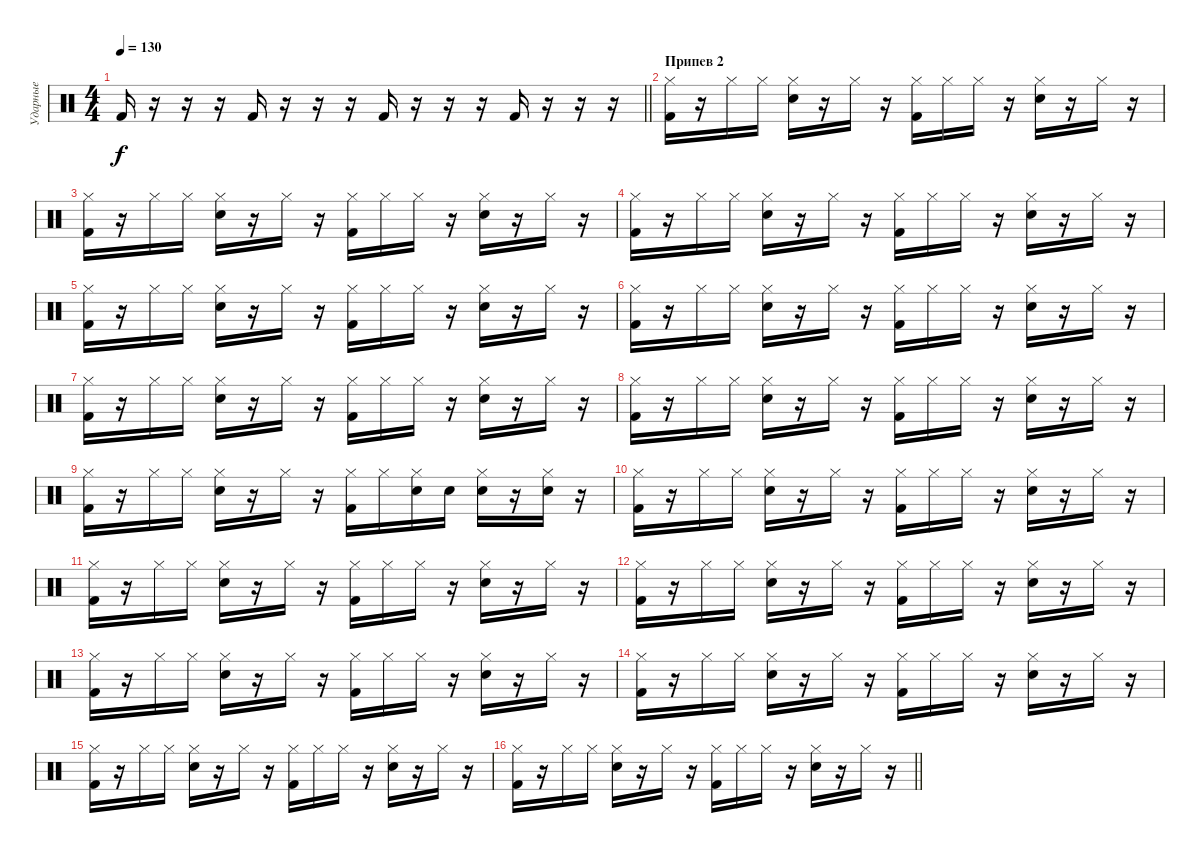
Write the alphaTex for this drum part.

\track ("Ударные" "Ударные") {instrument percussion}
\staff {score}
\articulation defaults
\ts (4 4)
\tempo 130
\clef neutral
\barLineRight lightlight
\ks c "Kick (hit) 2".16{dy f}
r.16 r.16 r.16 "Kick (hit) 2".16 r.16 r.16 r.16 "Kick (hit) 2".16 r.16 r.16 r.16 "Kick (hit) 2".16 r.16 r.16 r.16 |
\section ("" "Припев 2")
("Kick (hit) 2" "Hi-Hat (closed)").16 r.16 "Hi-Hat (closed)".16 "Hi-Hat (closed)".16 ("Snare (hit) 2" "Hi-Hat (closed)").16 r.16 "Hi-Hat (closed)".16 r.16 ("Kick (hit) 2" "Hi-Hat (closed)").16 "Hi-Hat (closed)".16 "Hi-Hat (closed)".16 r.16 ("Snare (hit) 2" "Hi-Hat (closed)").16 r.16 "Hi-Hat (closed)".16 r.16 |
("Kick (hit) 2" "Hi-Hat (closed)").16 r.16 "Hi-Hat (closed)".16 "Hi-Hat (closed)".16 ("Snare (hit) 2" "Hi-Hat (closed)").16 r.16 "Hi-Hat (closed)".16 r.16 ("Kick (hit) 2" "Hi-Hat (closed)").16 "Hi-Hat (closed)".16 "Hi-Hat (closed)".16 r.16 ("Snare (hit) 2" "Hi-Hat (closed)").16 r.16 "Hi-Hat (closed)".16 r.16 |
("Kick (hit) 2" "Hi-Hat (closed)").16 r.16 "Hi-Hat (closed)".16 "Hi-Hat (closed)".16 ("Snare (hit) 2" "Hi-Hat (closed)").16 r.16 "Hi-Hat (closed)".16 r.16 ("Kick (hit) 2" "Hi-Hat (closed)").16 "Hi-Hat (closed)".16 "Hi-Hat (closed)".16 r.16 ("Snare (hit) 2" "Hi-Hat (closed)").16 r.16 "Hi-Hat (closed)".16 r.16 |
("Kick (hit) 2" "Hi-Hat (closed)").16 r.16 "Hi-Hat (closed)".16 "Hi-Hat (closed)".16 ("Snare (hit) 2" "Hi-Hat (closed)").16 r.16 "Hi-Hat (closed)".16 r.16 ("Kick (hit) 2" "Hi-Hat (closed)").16 "Hi-Hat (closed)".16 "Hi-Hat (closed)".16 r.16 ("Snare (hit) 2" "Hi-Hat (closed)").16 r.16 "Hi-Hat (closed)".16 r.16 |
("Kick (hit) 2" "Hi-Hat (closed)").16 r.16 "Hi-Hat (closed)".16 "Hi-Hat (closed)".16 ("Snare (hit) 2" "Hi-Hat (closed)").16 r.16 "Hi-Hat (closed)".16 r.16 ("Kick (hit) 2" "Hi-Hat (closed)").16 "Hi-Hat (closed)".16 "Hi-Hat (closed)".16 r.16 ("Snare (hit) 2" "Hi-Hat (closed)").16 r.16 "Hi-Hat (closed)".16 r.16 |
("Kick (hit) 2" "Hi-Hat (closed)").16 r.16 "Hi-Hat (closed)".16 "Hi-Hat (closed)".16 ("Snare (hit) 2" "Hi-Hat (closed)").16 r.16 "Hi-Hat (closed)".16 r.16 ("Kick (hit) 2" "Hi-Hat (closed)").16 "Hi-Hat (closed)".16 "Hi-Hat (closed)".16 r.16 ("Snare (hit) 2" "Hi-Hat (closed)").16 r.16 "Hi-Hat (closed)".16 r.16 |
("Kick (hit) 2" "Hi-Hat (closed)").16 r.16 "Hi-Hat (closed)".16 "Hi-Hat (closed)".16 ("Snare (hit) 2" "Hi-Hat (closed)").16 r.16 "Hi-Hat (closed)".16 r.16 ("Kick (hit) 2" "Hi-Hat (closed)").16 "Hi-Hat (closed)".16 "Hi-Hat (closed)".16 r.16 ("Snare (hit) 2" "Hi-Hat (closed)").16 r.16 "Hi-Hat (closed)".16 r.16 |
("Kick (hit) 2" "Hi-Hat (closed)").16 r.16 "Hi-Hat (closed)".16 "Hi-Hat (closed)".16 ("Snare (hit) 2" "Hi-Hat (closed)").16 r.16 "Hi-Hat (closed)".16 r.16 ("Kick (hit) 2" "Hi-Hat (closed)").16 "Hi-Hat (closed)".16 ("Snare (hit) 2" "Hi-Hat (closed)").16 "Snare (hit) 2".16 ("Snare (hit) 2" "Hi-Hat (closed)").16 r.16 ("Snare (hit) 2" "Hi-Hat (closed)").16 r.16 |
("Kick (hit) 2" "Hi-Hat (closed)").16 r.16 "Hi-Hat (closed)".16 "Hi-Hat (closed)".16 ("Snare (hit) 2" "Hi-Hat (closed)").16 r.16 "Hi-Hat (closed)".16 r.16 ("Kick (hit) 2" "Hi-Hat (closed)").16 "Hi-Hat (closed)".16 "Hi-Hat (closed)".16 r.16 ("Snare (hit) 2" "Hi-Hat (closed)").16 r.16 "Hi-Hat (closed)".16 r.16 |
("Kick (hit) 2" "Hi-Hat (closed)").16 r.16 "Hi-Hat (closed)".16 "Hi-Hat (closed)".16 ("Snare (hit) 2" "Hi-Hat (closed)").16 r.16 "Hi-Hat (closed)".16 r.16 ("Kick (hit) 2" "Hi-Hat (closed)").16 "Hi-Hat (closed)".16 "Hi-Hat (closed)".16 r.16 ("Snare (hit) 2" "Hi-Hat (closed)").16 r.16 "Hi-Hat (closed)".16 r.16 |
("Kick (hit) 2" "Hi-Hat (closed)").16 r.16 "Hi-Hat (closed)".16 "Hi-Hat (closed)".16 ("Snare (hit) 2" "Hi-Hat (closed)").16 r.16 "Hi-Hat (closed)".16 r.16 ("Kick (hit) 2" "Hi-Hat (closed)").16 "Hi-Hat (closed)".16 "Hi-Hat (closed)".16 r.16 ("Snare (hit) 2" "Hi-Hat (closed)").16 r.16 "Hi-Hat (closed)".16 r.16 |
("Kick (hit) 2" "Hi-Hat (closed)").16 r.16 "Hi-Hat (closed)".16 "Hi-Hat (closed)".16 ("Snare (hit) 2" "Hi-Hat (closed)").16 r.16 "Hi-Hat (closed)".16 r.16 ("Kick (hit) 2" "Hi-Hat (closed)").16 "Hi-Hat (closed)".16 "Hi-Hat (closed)".16 r.16 ("Snare (hit) 2" "Hi-Hat (closed)").16 r.16 "Hi-Hat (closed)".16 r.16 |
("Kick (hit) 2" "Hi-Hat (closed)").16 r.16 "Hi-Hat (closed)".16 "Hi-Hat (closed)".16 ("Snare (hit) 2" "Hi-Hat (closed)").16 r.16 "Hi-Hat (closed)".16 r.16 ("Kick (hit) 2" "Hi-Hat (closed)").16 "Hi-Hat (closed)".16 "Hi-Hat (closed)".16 r.16 ("Snare (hit) 2" "Hi-Hat (closed)").16 r.16 "Hi-Hat (closed)".16 r.16 |
("Kick (hit) 2" "Hi-Hat (closed)").16 r.16 "Hi-Hat (closed)".16 "Hi-Hat (closed)".16 ("Snare (hit) 2" "Hi-Hat (closed)").16 r.16 "Hi-Hat (closed)".16 r.16 ("Kick (hit) 2" "Hi-Hat (closed)").16 "Hi-Hat (closed)".16 "Hi-Hat (closed)".16 r.16 ("Snare (hit) 2" "Hi-Hat (closed)").16 r.16 "Hi-Hat (closed)".16 r.16 |
\barLineRight lightlight
("Kick (hit) 2" "Hi-Hat (closed)").16 r.16 "Hi-Hat (closed)".16 "Hi-Hat (closed)".16 ("Snare (hit) 2" "Hi-Hat (closed)").16 r.16 "Hi-Hat (closed)".16 r.16 ("Kick (hit) 2" "Hi-Hat (closed)").16 "Hi-Hat (closed)".16 "Hi-Hat (closed)".16 r.16 ("Snare (hit) 2" "Hi-Hat (closed)").16 r.16 "Hi-Hat (closed)".16 r.16
